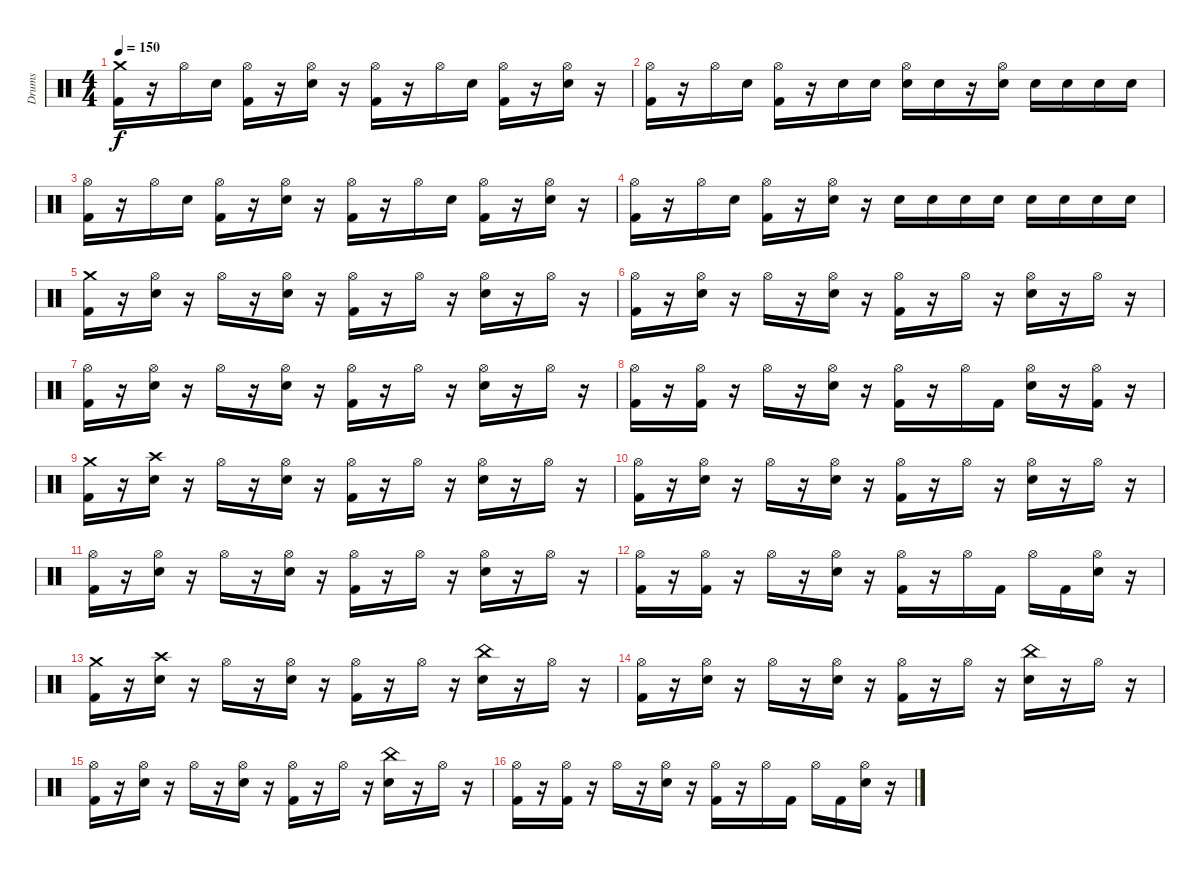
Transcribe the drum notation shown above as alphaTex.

\track ("Drums" "Drums") {instrument percussion}
\staff {score}
\articulation defaults
\ts (4 4)
\tempo 150
\clef neutral
\ks c
("Crash medium (hit)" "Kick (hit) 2").16{dy f} r.16 "Hi-Hat (open)".16 "Electric Snare (hit)".16 ("Hi-Hat (open)" "Kick (hit) 2").16 r.16 ("Hi-Hat (open)" "Electric Snare (hit)").16 r.16 ("Hi-Hat (open)" "Kick (hit) 2").16 r.16 "Hi-Hat (open)".16 "Electric Snare (hit)".16 ("Hi-Hat (open)" "Kick (hit) 2").16 r.16 ("Hi-Hat (open)" "Electric Snare (hit)").16 r.16 |
("Hi-Hat (open)" "Kick (hit) 2").16 r.16 "Hi-Hat (open)".16 "Electric Snare (hit)".16 ("Hi-Hat (open)" "Kick (hit) 2").16 r.16 "Electric Snare (hit)".16 "Electric Snare (hit)".16 ("Hi-Hat (open)" "Electric Snare (hit)").16 "Electric Snare (hit)".16 r.16 ("Hi-Hat (open)" "Electric Snare (hit)").16 "Electric Snare (hit)".16 "Electric Snare (hit)".16 "Electric Snare (hit)".16 "Electric Snare (hit)".16 |
("Hi-Hat (open)" "Kick (hit) 2").16 r.16 "Hi-Hat (open)".16 "Electric Snare (hit)".16 ("Hi-Hat (open)" "Kick (hit) 2").16 r.16 ("Hi-Hat (open)" "Electric Snare (hit)").16 r.16 ("Hi-Hat (open)" "Kick (hit) 2").16 r.16 "Hi-Hat (open)".16 "Electric Snare (hit)".16 ("Hi-Hat (open)" "Kick (hit) 2").16 r.16 ("Hi-Hat (open)" "Electric Snare (hit)").16 r.16 |
("Hi-Hat (open)" "Kick (hit) 2").16 r.16 "Hi-Hat (open)".16 "Electric Snare (hit)".16 ("Hi-Hat (open)" "Kick (hit) 2").16 r.16 ("Hi-Hat (open)" "Electric Snare (hit)").16 r.16 "Electric Snare (hit)".16 "Electric Snare (hit)".16 "Electric Snare (hit)".16 "Electric Snare (hit)".16 "Electric Snare (hit)".16 "Electric Snare (hit)".16 "Electric Snare (hit)".16 "Electric Snare (hit)".16 |
\section ("" "")
("Crash medium (hit)" "Kick (hit) 2").16 r.16 ("Hi-Hat (open)" "Electric Snare (hit)").16 r.16 "Hi-Hat (open)".16 r.16 ("Hi-Hat (open)" "Electric Snare (hit)").16 r.16 ("Hi-Hat (open)" "Kick (hit) 2").16 r.16 "Hi-Hat (open)".16 r.16 ("Hi-Hat (open)" "Electric Snare (hit)").16 r.16 "Hi-Hat (open)".16 r.16 |
("Hi-Hat (open)" "Kick (hit) 2").16 r.16 ("Hi-Hat (open)" "Electric Snare (hit)").16 r.16 "Hi-Hat (open)".16 r.16 ("Hi-Hat (open)" "Electric Snare (hit)").16 r.16 ("Hi-Hat (open)" "Kick (hit) 2").16 r.16 "Hi-Hat (open)".16 r.16 ("Hi-Hat (open)" "Electric Snare (hit)").16 r.16 "Hi-Hat (open)".16 r.16 |
("Hi-Hat (open)" "Kick (hit) 2").16 r.16 ("Hi-Hat (open)" "Electric Snare (hit)").16 r.16 "Hi-Hat (open)".16 r.16 ("Hi-Hat (open)" "Electric Snare (hit)").16 r.16 ("Hi-Hat (open)" "Kick (hit) 2").16 r.16 "Hi-Hat (open)".16 r.16 ("Hi-Hat (open)" "Electric Snare (hit)").16 r.16 "Hi-Hat (open)".16 r.16 |
("Hi-Hat (open)" "Kick (hit) 2").16 r.16 ("Hi-Hat (open)" "Kick (hit) 2").16 r.16 "Hi-Hat (open)".16 r.16 ("Hi-Hat (open)" "Electric Snare (hit)").16 r.16 ("Hi-Hat (open)" "Kick (hit) 2").16 r.16 "Hi-Hat (open)".16 "Kick (hit) 2".16 ("Hi-Hat (open)" "Electric Snare (hit)").16 r.16 ("Hi-Hat (open)" "Kick (hit) 2").16 r.16 |
("Crash medium (hit)" "Kick (hit) 2").16 r.16 ("Crash high (hit)" "Electric Snare (hit)").16 r.16 "Hi-Hat (open)".16 r.16 ("Hi-Hat (open)" "Electric Snare (hit)").16 r.16 ("Hi-Hat (open)" "Kick (hit) 2").16 r.16 "Hi-Hat (open)".16 r.16 ("Hi-Hat (open)" "Electric Snare (hit)").16 r.16 "Hi-Hat (open)".16 r.16 |
("Hi-Hat (open)" "Kick (hit) 2").16 r.16 ("Hi-Hat (open)" "Electric Snare (hit)").16 r.16 "Hi-Hat (open)".16 r.16 ("Hi-Hat (open)" "Electric Snare (hit)").16 r.16 ("Hi-Hat (open)" "Kick (hit) 2").16 r.16 "Hi-Hat (open)".16 r.16 ("Hi-Hat (open)" "Electric Snare (hit)").16 r.16 "Hi-Hat (open)".16 r.16 |
("Hi-Hat (open)" "Kick (hit) 2").16 r.16 ("Hi-Hat (open)" "Electric Snare (hit)").16 r.16 "Hi-Hat (open)".16 r.16 ("Hi-Hat (open)" "Electric Snare (hit)").16 r.16 ("Hi-Hat (open)" "Kick (hit) 2").16 r.16 "Hi-Hat (open)".16 r.16 ("Hi-Hat (open)" "Electric Snare (hit)").16 r.16 "Hi-Hat (open)".16 r.16 |
("Hi-Hat (open)" "Kick (hit) 2").16 r.16 ("Hi-Hat (open)" "Kick (hit) 2").16 r.16 "Hi-Hat (open)".16 r.16 ("Hi-Hat (open)" "Electric Snare (hit)").16 r.16 ("Hi-Hat (open)" "Kick (hit) 2").16 r.16 "Hi-Hat (open)".16 "Kick (hit) 2".16 "Hi-Hat (open)".16 "Kick (hit) 2".16 ("Hi-Hat (open)" "Electric Snare (hit)").16 r.16 |
("Crash medium (hit)" "Kick (hit) 2").16 r.16 ("Crash high (hit)" "Electric Snare (hit)").16 r.16 "Hi-Hat (open)".16 r.16 ("Hi-Hat (open)" "Electric Snare (hit)").16 r.16 ("Hi-Hat (open)" "Kick (hit) 2").16 r.16 "Hi-Hat (open)".16 r.16 ("China (hit)" "Electric Snare (hit)").16 r.16 "Hi-Hat (open)".16 r.16 |
("Hi-Hat (open)" "Kick (hit) 2").16 r.16 ("Hi-Hat (open)" "Electric Snare (hit)").16 r.16 "Hi-Hat (open)".16 r.16 ("Hi-Hat (open)" "Electric Snare (hit)").16 r.16 ("Hi-Hat (open)" "Kick (hit) 2").16 r.16 "Hi-Hat (open)".16 r.16 ("China (hit)" "Electric Snare (hit)").16 r.16 "Hi-Hat (open)".16 r.16 |
("Hi-Hat (open)" "Kick (hit) 2").16 r.16 ("Hi-Hat (open)" "Electric Snare (hit)").16 r.16 "Hi-Hat (open)".16 r.16 ("Hi-Hat (open)" "Electric Snare (hit)").16 r.16 ("Hi-Hat (open)" "Kick (hit) 2").16 r.16 "Hi-Hat (open)".16 r.16 ("China (hit)" "Electric Snare (hit)").16 r.16 "Hi-Hat (open)".16 r.16 |
("Hi-Hat (open)" "Kick (hit) 2").16 r.16 ("Hi-Hat (open)" "Kick (hit) 2").16 r.16 "Hi-Hat (open)".16 r.16 ("Hi-Hat (open)" "Electric Snare (hit)").16 r.16 ("Hi-Hat (open)" "Kick (hit) 2").16 r.16 "Hi-Hat (open)".16 "Kick (hit) 2".16 "Hi-Hat (open)".16 "Kick (hit) 2".16 ("Hi-Hat (open)" "Electric Snare (hit)").16 r.16
